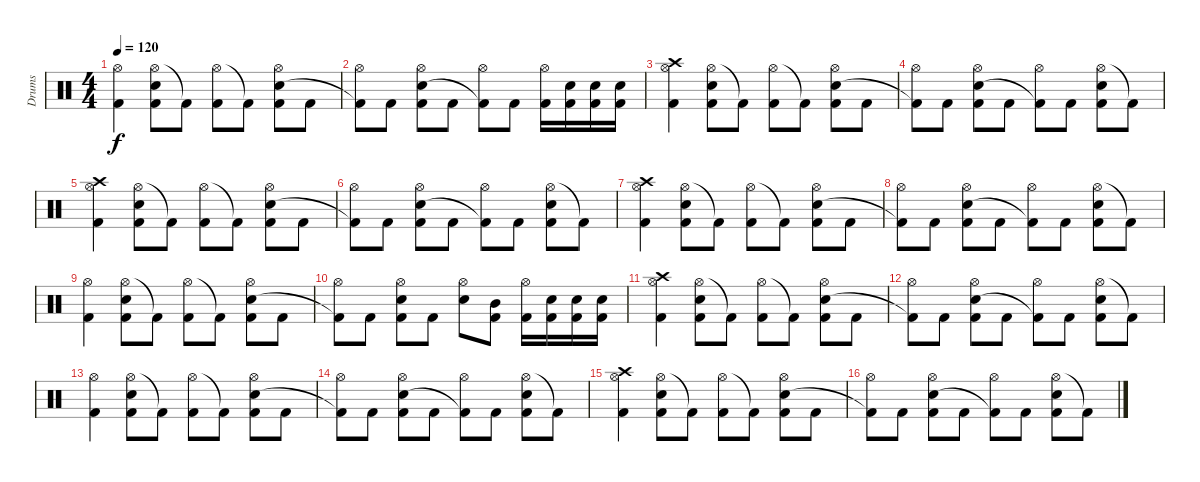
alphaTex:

\track ("Drums" "Drums") {instrument percussion}
\staff {score}
\articulation defaults
\ts (4 4)
\tempo 120
\clef neutral
\ks c
("Hi-Hat (open)" "Kick (hit) 2").4{dy f} ("Hi-Hat (open)" "Electric Snare (hit)" "Kick (hit) 2").8 "Kick (hit) 2"{t}.8 ("Hi-Hat (open)" "Kick (hit) 2").8 "Kick (hit) 2"{t}.8 ("Hi-Hat (open)" "Electric Snare (hit)" "Kick (hit) 2").8 "Kick (hit) 2".8 |
("Hi-Hat (open)" "Kick (hit) 2"{t}).8 "Kick (hit) 2".8 ("Hi-Hat (open)" "Electric Snare (hit)" "Kick (hit) 2").8 "Kick (hit) 2".8 ("Hi-Hat (open)" "Kick (hit) 2"{t}).8 "Kick (hit) 2".8 ("Hi-Hat (open)" "Kick (hit) 2").16 ("Electric Snare (hit)" "Kick (hit) 2").16 ("Electric Snare (hit)" "Kick (hit) 2").16 ("Electric Snare (hit)" "Kick (hit) 2").16 |
("Crash high (hit)" "Hi-Hat (open)" "Kick (hit) 2").4 ("Hi-Hat (open)" "Electric Snare (hit)" "Kick (hit) 2").8 "Kick (hit) 2"{t}.8 ("Hi-Hat (open)" "Kick (hit) 2").8 "Kick (hit) 2"{t}.8 ("Hi-Hat (open)" "Electric Snare (hit)" "Kick (hit) 2").8 "Kick (hit) 2".8 |
("Hi-Hat (open)" "Kick (hit) 2"{t}).8 "Kick (hit) 2".8 ("Hi-Hat (open)" "Electric Snare (hit)" "Kick (hit) 2").8 "Kick (hit) 2".8 ("Hi-Hat (open)" "Kick (hit) 2"{t}).8 "Kick (hit) 2".8 ("Hi-Hat (open)" "Electric Snare (hit)" "Kick (hit) 2").8 "Kick (hit) 2"{t}.8 |
("Crash high (hit)" "Hi-Hat (open)" "Kick (hit) 2").4 ("Hi-Hat (open)" "Electric Snare (hit)" "Kick (hit) 2").8 "Kick (hit) 2"{t}.8 ("Hi-Hat (open)" "Kick (hit) 2").8 "Kick (hit) 2"{t}.8 ("Hi-Hat (open)" "Electric Snare (hit)" "Kick (hit) 2").8 "Kick (hit) 2".8 |
("Hi-Hat (open)" "Kick (hit) 2"{t}).8 "Kick (hit) 2".8 ("Hi-Hat (open)" "Electric Snare (hit)" "Kick (hit) 2").8 "Kick (hit) 2".8 ("Hi-Hat (open)" "Kick (hit) 2"{t}).8 "Kick (hit) 2".8 ("Hi-Hat (open)" "Electric Snare (hit)" "Kick (hit) 2").8 "Kick (hit) 2"{t}.8 |
("Crash high (hit)" "Hi-Hat (open)" "Kick (hit) 2").4 ("Hi-Hat (open)" "Electric Snare (hit)" "Kick (hit) 2").8 "Kick (hit) 2"{t}.8 ("Hi-Hat (open)" "Kick (hit) 2").8 "Kick (hit) 2"{t}.8 ("Hi-Hat (open)" "Electric Snare (hit)" "Kick (hit) 2").8 "Kick (hit) 2".8 |
("Hi-Hat (open)" "Kick (hit) 2"{t}).8 "Kick (hit) 2".8 ("Hi-Hat (open)" "Electric Snare (hit)" "Kick (hit) 2").8 "Kick (hit) 2".8 ("Hi-Hat (open)" "Kick (hit) 2"{t}).8 "Kick (hit) 2".8 ("Hi-Hat (open)" "Electric Snare (hit)" "Kick (hit) 2").8 "Kick (hit) 2"{t}.8 |
("Hi-Hat (open)" "Kick (hit) 2").4 ("Hi-Hat (open)" "Electric Snare (hit)" "Kick (hit) 2").8 "Kick (hit) 2"{t}.8 ("Hi-Hat (open)" "Kick (hit) 2").8 "Kick (hit) 2"{t}.8 ("Hi-Hat (open)" "Electric Snare (hit)" "Kick (hit) 2").8 "Kick (hit) 2".8 |
("Hi-Hat (open)" "Kick (hit) 2"{t}).8 "Kick (hit) 2".8 ("Hi-Hat (open)" "Electric Snare (hit)" "Kick (hit) 2").8 "Kick (hit) 2".8 ("Hi-Hat (open)" "Electric Snare (hit)").8 ("Mid Tom (hit)" "Kick (hit) 2").8 ("Hi-Hat (open)" "Kick (hit) 2").16 ("Electric Snare (hit)" "Kick (hit) 2").16 ("Electric Snare (hit)" "Kick (hit) 2").16 ("Electric Snare (hit)" "Kick (hit) 2").16 |
("Crash high (hit)" "Hi-Hat (open)" "Kick (hit) 2").4 ("Hi-Hat (open)" "Electric Snare (hit)" "Kick (hit) 2").8 "Kick (hit) 2"{t}.8 ("Hi-Hat (open)" "Kick (hit) 2").8 "Kick (hit) 2"{t}.8 ("Hi-Hat (open)" "Electric Snare (hit)" "Kick (hit) 2").8 "Kick (hit) 2".8 |
("Hi-Hat (open)" "Kick (hit) 2"{t}).8 "Kick (hit) 2".8 ("Hi-Hat (open)" "Electric Snare (hit)" "Kick (hit) 2").8 "Kick (hit) 2".8 ("Hi-Hat (open)" "Kick (hit) 2"{t}).8 "Kick (hit) 2".8 ("Hi-Hat (open)" "Electric Snare (hit)" "Kick (hit) 2").8 "Kick (hit) 2"{t}.8 |
("Hi-Hat (open)" "Kick (hit) 2").4 ("Hi-Hat (open)" "Electric Snare (hit)" "Kick (hit) 2").8 "Kick (hit) 2"{t}.8 ("Hi-Hat (open)" "Kick (hit) 2").8 "Kick (hit) 2"{t}.8 ("Hi-Hat (open)" "Electric Snare (hit)" "Kick (hit) 2").8 "Kick (hit) 2".8 |
("Hi-Hat (open)" "Kick (hit) 2"{t}).8 "Kick (hit) 2".8 ("Hi-Hat (open)" "Electric Snare (hit)" "Kick (hit) 2").8 "Kick (hit) 2".8 ("Hi-Hat (open)" "Kick (hit) 2"{t}).8 "Kick (hit) 2".8 ("Hi-Hat (open)" "Electric Snare (hit)" "Kick (hit) 2").8 "Kick (hit) 2"{t}.8 |
("Crash high (hit)" "Hi-Hat (open)" "Kick (hit) 2").4 ("Hi-Hat (open)" "Electric Snare (hit)" "Kick (hit) 2").8 "Kick (hit) 2"{t}.8 ("Hi-Hat (open)" "Kick (hit) 2").8 "Kick (hit) 2"{t}.8 ("Hi-Hat (open)" "Electric Snare (hit)" "Kick (hit) 2").8 "Kick (hit) 2".8 |
("Hi-Hat (open)" "Kick (hit) 2"{t}).8 "Kick (hit) 2".8 ("Hi-Hat (open)" "Electric Snare (hit)" "Kick (hit) 2").8 "Kick (hit) 2".8 ("Hi-Hat (open)" "Kick (hit) 2"{t}).8 "Kick (hit) 2".8 ("Hi-Hat (open)" "Electric Snare (hit)" "Kick (hit) 2").8 "Kick (hit) 2"{t}.8
